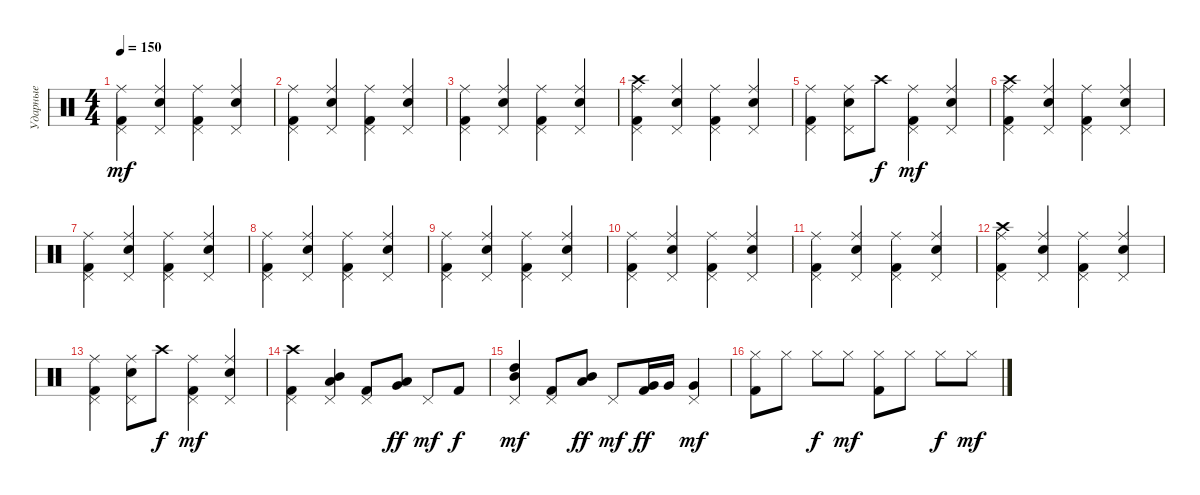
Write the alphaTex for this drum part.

\track ("Ударные" "Ударные") {instrument percussion}
\staff {score}
\articulation defaults
\ts (4 4)
\tempo 150
\clef neutral
\ks c
("Kick (hit) 2" "Pedal Hi-Hat (hit)" "Ride (middle)").4{dy mf} ("Snare (hit) 2" "Pedal Hi-Hat (hit)" "Ride (middle)").4 ("Kick (hit) 2" "Pedal Hi-Hat (hit)" "Ride (middle)").4 ("Snare (hit) 2" "Pedal Hi-Hat (hit)" "Ride (middle)").4 |
("Kick (hit) 2" "Pedal Hi-Hat (hit)" "Ride (middle)").4 ("Snare (hit) 2" "Pedal Hi-Hat (hit)" "Ride (middle)").4 ("Kick (hit) 2" "Pedal Hi-Hat (hit)" "Ride (middle)").4 ("Snare (hit) 2" "Pedal Hi-Hat (hit)" "Ride (middle)").4 |
("Kick (hit) 2" "Pedal Hi-Hat (hit)" "Ride (middle)").4 ("Snare (hit) 2" "Pedal Hi-Hat (hit)" "Ride (middle)").4 ("Kick (hit) 2" "Pedal Hi-Hat (hit)" "Ride (middle)").4 ("Snare (hit) 2" "Pedal Hi-Hat (hit)" "Ride (middle)").4 |
("Kick (hit) 2" "Crash high (hit)" "Pedal Hi-Hat (hit)" "Ride (middle)").4 ("Snare (hit) 2" "Pedal Hi-Hat (hit)" "Ride (middle)").4 ("Kick (hit) 2" "Pedal Hi-Hat (hit)" "Ride (middle)").4 ("Snare (hit) 2" "Pedal Hi-Hat (hit)" "Ride (middle)").4 |
("Kick (hit) 2" "Pedal Hi-Hat (hit)" "Ride (middle)").4 ("Snare (hit) 2" "Pedal Hi-Hat (hit)" "Ride (middle)").8 "Crash high (hit)".8{dy f} ("Kick (hit) 2" "Pedal Hi-Hat (hit)" "Ride (middle)").4{dy mf} ("Snare (hit) 2" "Pedal Hi-Hat (hit)" "Ride (middle)").4 |
("Kick (hit) 2" "Crash high (hit)" "Pedal Hi-Hat (hit)" "Ride (middle)").4 ("Snare (hit) 2" "Pedal Hi-Hat (hit)" "Ride (middle)").4 ("Kick (hit) 2" "Pedal Hi-Hat (hit)" "Ride (middle)").4 ("Snare (hit) 2" "Pedal Hi-Hat (hit)" "Ride (middle)").4 |
("Kick (hit) 2" "Pedal Hi-Hat (hit)" "Ride (middle)").4 ("Snare (hit) 2" "Pedal Hi-Hat (hit)" "Ride (middle)").4 ("Kick (hit) 2" "Pedal Hi-Hat (hit)" "Ride (middle)").4 ("Snare (hit) 2" "Pedal Hi-Hat (hit)" "Ride (middle)").4 |
("Kick (hit) 2" "Pedal Hi-Hat (hit)" "Ride (middle)").4 ("Snare (hit) 2" "Pedal Hi-Hat (hit)" "Ride (middle)").4 ("Kick (hit) 2" "Pedal Hi-Hat (hit)" "Ride (middle)").4 ("Snare (hit) 2" "Pedal Hi-Hat (hit)" "Ride (middle)").4 |
("Kick (hit) 2" "Pedal Hi-Hat (hit)" "Ride (middle)").4 ("Snare (hit) 2" "Pedal Hi-Hat (hit)" "Ride (middle)").4 ("Kick (hit) 2" "Pedal Hi-Hat (hit)" "Ride (middle)").4 ("Snare (hit) 2" "Pedal Hi-Hat (hit)" "Ride (middle)").4 |
("Kick (hit) 2" "Pedal Hi-Hat (hit)" "Ride (middle)").4 ("Snare (hit) 2" "Pedal Hi-Hat (hit)" "Ride (middle)").4 ("Kick (hit) 2" "Pedal Hi-Hat (hit)" "Ride (middle)").4 ("Snare (hit) 2" "Pedal Hi-Hat (hit)" "Ride (middle)").4 |
("Kick (hit) 2" "Pedal Hi-Hat (hit)" "Ride (middle)").4 ("Snare (hit) 2" "Pedal Hi-Hat (hit)" "Ride (middle)").4 ("Kick (hit) 2" "Pedal Hi-Hat (hit)" "Ride (middle)").4 ("Snare (hit) 2" "Pedal Hi-Hat (hit)" "Ride (middle)").4 |
("Kick (hit) 2" "Crash high (hit)" "Pedal Hi-Hat (hit)" "Ride (middle)").4 ("Snare (hit) 2" "Pedal Hi-Hat (hit)" "Ride (middle)").4 ("Kick (hit) 2" "Pedal Hi-Hat (hit)" "Ride (middle)").4 ("Snare (hit) 2" "Pedal Hi-Hat (hit)" "Ride (middle)").4 |
("Kick (hit) 2" "Pedal Hi-Hat (hit)" "Ride (middle)").4 ("Snare (hit) 2" "Pedal Hi-Hat (hit)" "Ride (middle)").8 "Crash high (hit)".8{dy f} ("Kick (hit) 2" "Pedal Hi-Hat (hit)" "Ride (middle)").4{dy mf} ("Snare (hit) 2" "Pedal Hi-Hat (hit)" "Ride (middle)").4 |
("Kick (hit) 2" "Crash high (hit)" "Pedal Hi-Hat (hit)").4 ("Mid Tom (hit)" "Low Tom (hit)" "Pedal Hi-Hat (hit)").4 ("Kick (hit) 2" "Pedal Hi-Hat (hit)").8 ("Low Tom (hit)" "Very Low Tom (hit)").8{dy ff} "Pedal Hi-Hat (hit)".8{dy mf} "Kick (hit) 2".8{dy f} |
("High Tom (hit)" "Mid Tom (hit)" "Pedal Hi-Hat (hit)").4{dy mf} ("Kick (hit) 2" "Pedal Hi-Hat (hit)").8 ("Mid Tom (hit)" "Low Tom (hit)").8{dy ff} "Pedal Hi-Hat (hit)".8{dy mf} ("Kick (hit) 2" "Very Low Tom (hit)").16{dy ff} "Very Low Tom (hit)".16 ("Very Low Tom (hit)" "Pedal Hi-Hat (hit)").4{dy mf} |
("Kick (hit) 2" "Hi-Hat (closed)").8 "Hi-Hat (closed)".8 "Hi-Hat (closed)".8{dy f} "Hi-Hat (closed)".8{dy mf} ("Kick (hit) 2" "Hi-Hat (closed)").8 "Hi-Hat (closed)".8 "Hi-Hat (closed)".8{dy f} "Hi-Hat (closed)".8{dy mf}
